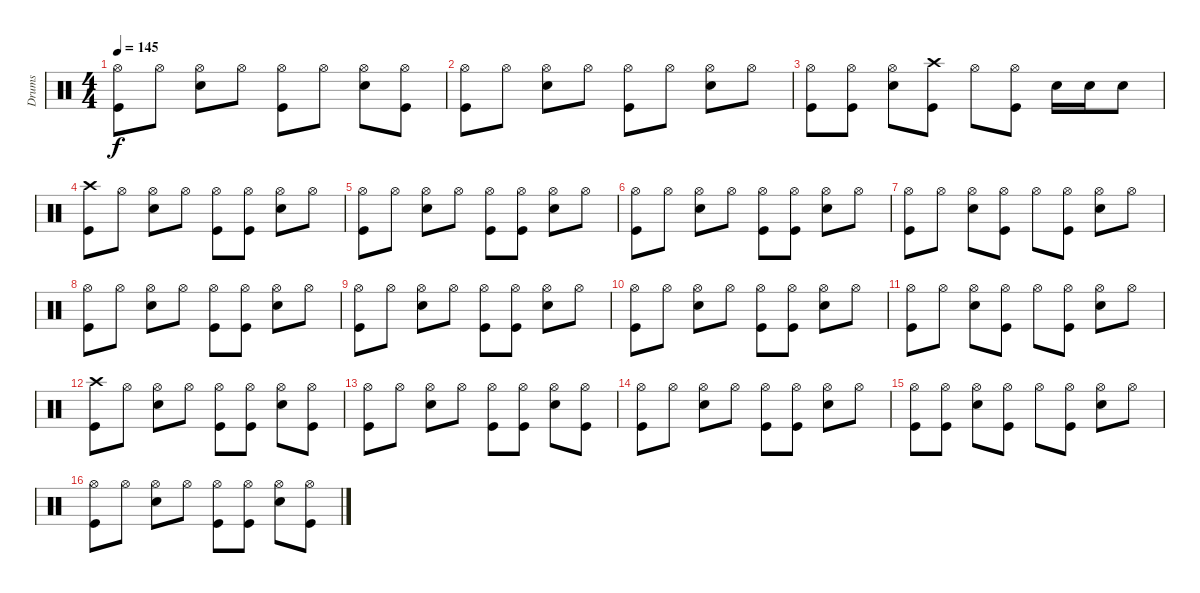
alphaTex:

\track ("Drums" "Drums") {instrument percussion}
\staff {score}
\articulation defaults
\ts (4 4)
\tempo 145
\clef neutral
\ks c
("Hi-Hat (open)" "Kick (hit)").8{dy f} "Hi-Hat (open)".8 ("Hi-Hat (open)" "Snare (hit) 2").8 "Hi-Hat (open)".8 ("Hi-Hat (open)" "Kick (hit)").8 "Hi-Hat (open)".8 ("Hi-Hat (open)" "Snare (hit) 2").8 ("Hi-Hat (open)" "Kick (hit)").8 |
("Hi-Hat (open)" "Kick (hit)").8 "Hi-Hat (open)".8 ("Hi-Hat (open)" "Snare (hit) 2").8 "Hi-Hat (open)".8 ("Hi-Hat (open)" "Kick (hit)").8 "Hi-Hat (open)".8 ("Hi-Hat (open)" "Snare (hit) 2").8 "Hi-Hat (open)".8 |
("Hi-Hat (open)" "Kick (hit)").8 ("Hi-Hat (open)" "Kick (hit)").8 ("Hi-Hat (open)" "Snare (hit) 2").8 ("Crash high (hit)" "Kick (hit)").8 "Hi-Hat (open)".8 ("Hi-Hat (open)" "Kick (hit)").8 "Snare (hit) 2".16 "Snare (hit) 2".16 "Snare (hit) 2".8 |
("Crash high (hit)" "Kick (hit)").8 "Hi-Hat (open)".8 ("Hi-Hat (open)" "Snare (hit) 2").8 "Hi-Hat (open)".8 ("Hi-Hat (open)" "Kick (hit)").8 ("Hi-Hat (open)" "Kick (hit)").8 ("Hi-Hat (open)" "Snare (hit) 2").8 "Hi-Hat (open)".8 |
("Hi-Hat (open)" "Kick (hit)").8 "Hi-Hat (open)".8 ("Hi-Hat (open)" "Snare (hit) 2").8 "Hi-Hat (open)".8 ("Hi-Hat (open)" "Kick (hit)").8 ("Hi-Hat (open)" "Kick (hit)").8 ("Hi-Hat (open)" "Snare (hit) 2").8 "Hi-Hat (open)".8 |
("Hi-Hat (open)" "Kick (hit)").8 "Hi-Hat (open)".8 ("Hi-Hat (open)" "Snare (hit) 2").8 "Hi-Hat (open)".8 ("Hi-Hat (open)" "Kick (hit)").8 ("Hi-Hat (open)" "Kick (hit)").8 ("Hi-Hat (open)" "Snare (hit) 2").8 "Hi-Hat (open)".8 |
("Hi-Hat (open)" "Kick (hit)").8 "Hi-Hat (open)".8 ("Hi-Hat (open)" "Snare (hit) 2").8 ("Hi-Hat (open)" "Kick (hit)").8 "Hi-Hat (open)".8 ("Hi-Hat (open)" "Kick (hit)").8 ("Hi-Hat (open)" "Snare (hit) 2").8 "Hi-Hat (open)".8 |
("Hi-Hat (open)" "Kick (hit)").8 "Hi-Hat (open)".8 ("Hi-Hat (open)" "Snare (hit) 2").8 "Hi-Hat (open)".8 ("Hi-Hat (open)" "Kick (hit)").8 ("Hi-Hat (open)" "Kick (hit)").8 ("Hi-Hat (open)" "Snare (hit) 2").8 "Hi-Hat (open)".8 |
("Hi-Hat (open)" "Kick (hit)").8 "Hi-Hat (open)".8 ("Hi-Hat (open)" "Snare (hit) 2").8 "Hi-Hat (open)".8 ("Hi-Hat (open)" "Kick (hit)").8 ("Hi-Hat (open)" "Kick (hit)").8 ("Hi-Hat (open)" "Snare (hit) 2").8 "Hi-Hat (open)".8 |
("Hi-Hat (open)" "Kick (hit)").8 "Hi-Hat (open)".8 ("Hi-Hat (open)" "Snare (hit) 2").8 "Hi-Hat (open)".8 ("Hi-Hat (open)" "Kick (hit)").8 ("Hi-Hat (open)" "Kick (hit)").8 ("Hi-Hat (open)" "Snare (hit) 2").8 "Hi-Hat (open)".8 |
("Hi-Hat (open)" "Kick (hit)").8 "Hi-Hat (open)".8 ("Hi-Hat (open)" "Snare (hit) 2").8 ("Hi-Hat (open)" "Kick (hit)").8 "Hi-Hat (open)".8 ("Hi-Hat (open)" "Kick (hit)").8 ("Hi-Hat (open)" "Snare (hit) 2").8 "Hi-Hat (open)".8 |
("Crash high (hit)" "Kick (hit)").8 "Hi-Hat (open)".8 ("Hi-Hat (open)" "Snare (hit) 2").8 "Hi-Hat (open)".8 ("Hi-Hat (open)" "Kick (hit)").8 ("Hi-Hat (open)" "Kick (hit)").8 ("Hi-Hat (open)" "Snare (hit) 2").8 ("Hi-Hat (open)" "Kick (hit)").8 |
("Hi-Hat (open)" "Kick (hit)").8 "Hi-Hat (open)".8 ("Hi-Hat (open)" "Snare (hit) 2").8 "Hi-Hat (open)".8 ("Hi-Hat (open)" "Kick (hit)").8 ("Hi-Hat (open)" "Kick (hit)").8 ("Hi-Hat (open)" "Snare (hit) 2").8 ("Hi-Hat (open)" "Kick (hit)").8 |
("Hi-Hat (open)" "Kick (hit)").8 "Hi-Hat (open)".8 ("Hi-Hat (open)" "Snare (hit) 2").8 "Hi-Hat (open)".8 ("Hi-Hat (open)" "Kick (hit)").8 ("Hi-Hat (open)" "Kick (hit)").8 ("Hi-Hat (open)" "Snare (hit) 2").8 "Hi-Hat (open)".8 |
("Hi-Hat (open)" "Kick (hit)").8 ("Hi-Hat (open)" "Kick (hit)").8 ("Hi-Hat (open)" "Snare (hit) 2").8 ("Hi-Hat (open)" "Kick (hit)").8 "Hi-Hat (open)".8 ("Hi-Hat (open)" "Kick (hit)").8 ("Hi-Hat (open)" "Snare (hit) 2").8 "Hi-Hat (open)".8 |
("Hi-Hat (open)" "Kick (hit)").8 "Hi-Hat (open)".8 ("Hi-Hat (open)" "Snare (hit) 2").8 "Hi-Hat (open)".8 ("Hi-Hat (open)" "Kick (hit)").8 ("Hi-Hat (open)" "Kick (hit)").8 ("Hi-Hat (open)" "Snare (hit) 2").8 ("Hi-Hat (open)" "Kick (hit)").8
